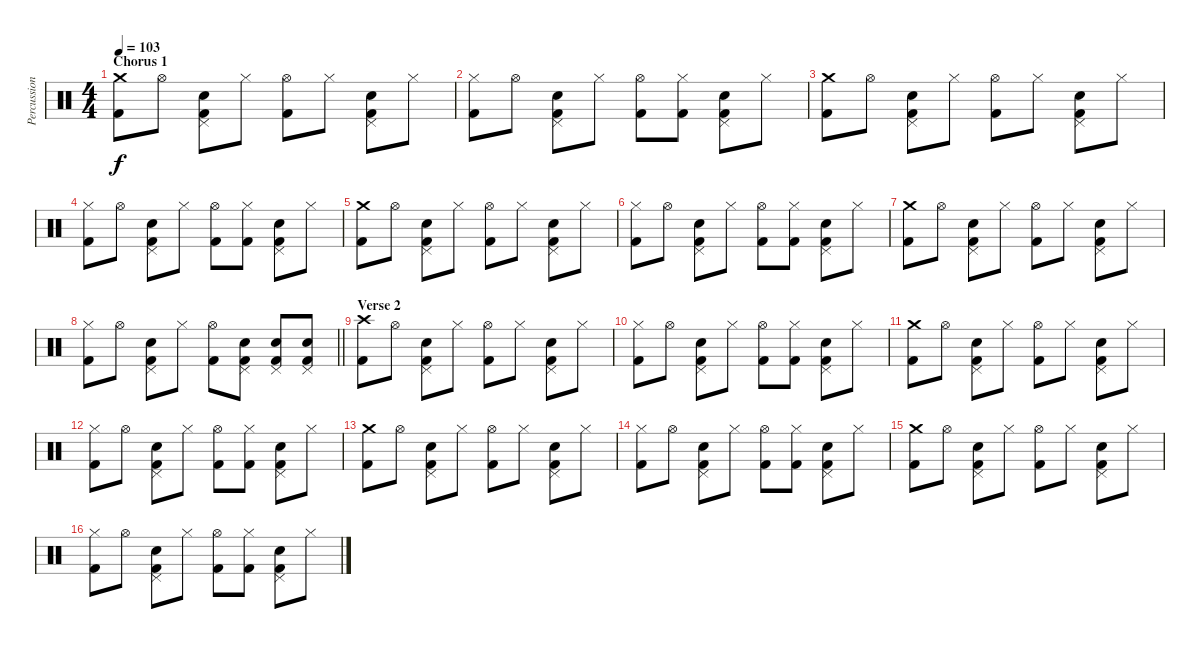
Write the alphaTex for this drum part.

\track ("Percussion: Denny Carmassi" "Percussion") {instrument percussion}
\staff {score}
\articulation defaults
\ts (4 4)
\section ("" "Chorus 1")
\tempo 103
\clef neutral
\ks c
("Crash medium (hit)" "Kick (hit) 2").8{dy f} "Hi-Hat (open)".8 ("Pedal Hi-Hat (hit)" "Snare (hit) 2" "Kick (hit) 2").8 "Hi-Hat (closed)".8 ("Hi-Hat (open)" "Kick (hit) 2").8 "Hi-Hat (closed)".8 ("Pedal Hi-Hat (hit)" "Snare (hit) 2" "Kick (hit) 2").8 "Hi-Hat (closed)".8 |
("Hi-Hat (closed)" "Kick (hit) 2").8 "Hi-Hat (open)".8 ("Pedal Hi-Hat (hit)" "Snare (hit) 2" "Kick (hit) 2").8 "Hi-Hat (closed)".8 ("Hi-Hat (open)" "Kick (hit) 2").8 ("Hi-Hat (closed)" "Kick (hit) 2").8 ("Pedal Hi-Hat (hit)" "Snare (hit) 2" "Kick (hit) 2").8 "Hi-Hat (closed)".8 |
("Crash medium (hit)" "Kick (hit) 2").8 "Hi-Hat (open)".8 ("Pedal Hi-Hat (hit)" "Snare (hit) 2" "Kick (hit) 2").8 "Hi-Hat (closed)".8 ("Hi-Hat (open)" "Kick (hit) 2").8 "Hi-Hat (closed)".8 ("Pedal Hi-Hat (hit)" "Snare (hit) 2" "Kick (hit) 2").8 "Hi-Hat (closed)".8 |
("Hi-Hat (closed)" "Kick (hit) 2").8 "Hi-Hat (open)".8 ("Pedal Hi-Hat (hit)" "Snare (hit) 2" "Kick (hit) 2").8 "Hi-Hat (closed)".8 ("Hi-Hat (open)" "Kick (hit) 2").8 ("Hi-Hat (closed)" "Kick (hit) 2").8 ("Pedal Hi-Hat (hit)" "Snare (hit) 2" "Kick (hit) 2").8 "Hi-Hat (closed)".8 |
("Crash medium (hit)" "Kick (hit) 2").8 "Hi-Hat (open)".8 ("Pedal Hi-Hat (hit)" "Snare (hit) 2" "Kick (hit) 2").8 "Hi-Hat (closed)".8 ("Hi-Hat (open)" "Kick (hit) 2").8 "Hi-Hat (closed)".8 ("Pedal Hi-Hat (hit)" "Snare (hit) 2" "Kick (hit) 2").8 "Hi-Hat (closed)".8 |
("Hi-Hat (closed)" "Kick (hit) 2").8 "Hi-Hat (open)".8 ("Pedal Hi-Hat (hit)" "Snare (hit) 2" "Kick (hit) 2").8 "Hi-Hat (closed)".8 ("Hi-Hat (open)" "Kick (hit) 2").8 ("Hi-Hat (closed)" "Kick (hit) 2").8 ("Pedal Hi-Hat (hit)" "Snare (hit) 2" "Kick (hit) 2").8 "Hi-Hat (closed)".8 |
("Crash medium (hit)" "Kick (hit) 2").8 "Hi-Hat (open)".8 ("Pedal Hi-Hat (hit)" "Snare (hit) 2" "Kick (hit) 2").8 "Hi-Hat (closed)".8 ("Hi-Hat (open)" "Kick (hit) 2").8 "Hi-Hat (closed)".8 ("Pedal Hi-Hat (hit)" "Snare (hit) 2" "Kick (hit) 2").8 "Hi-Hat (closed)".8 |
\barLineRight lightlight
("Hi-Hat (closed)" "Kick (hit) 2").8 "Hi-Hat (open)".8 ("Pedal Hi-Hat (hit)" "Snare (hit) 2" "Kick (hit) 2").8 "Hi-Hat (closed)".8 ("Hi-Hat (open)" "Kick (hit) 2").8 ("Pedal Hi-Hat (hit)" "Snare (hit) 2" "Kick (hit) 2").8 ("Pedal Hi-Hat (hit)" "Snare (hit) 2" "Kick (hit) 2").8 ("Pedal Hi-Hat (hit)" "Snare (hit) 2" "Kick (hit) 2").8 |
\section ("" "Verse 2")
("Crash high (hit)" "Kick (hit) 2").8 "Hi-Hat (open)".8 ("Pedal Hi-Hat (hit)" "Snare (hit) 2" "Kick (hit) 2").8 "Hi-Hat (closed)".8 ("Hi-Hat (open)" "Kick (hit) 2").8 "Hi-Hat (closed)".8 ("Pedal Hi-Hat (hit)" "Snare (hit) 2" "Kick (hit) 2").8 "Hi-Hat (closed)".8 |
("Hi-Hat (closed)" "Kick (hit) 2").8 "Hi-Hat (open)".8 ("Pedal Hi-Hat (hit)" "Snare (hit) 2" "Kick (hit) 2").8 "Hi-Hat (closed)".8 ("Hi-Hat (open)" "Kick (hit) 2").8 ("Hi-Hat (closed)" "Kick (hit) 2").8 ("Pedal Hi-Hat (hit)" "Snare (hit) 2" "Kick (hit) 2").8 "Hi-Hat (closed)".8 |
("Crash medium (hit)" "Kick (hit) 2").8 "Hi-Hat (open)".8 ("Pedal Hi-Hat (hit)" "Snare (hit) 2" "Kick (hit) 2").8 "Hi-Hat (closed)".8 ("Hi-Hat (open)" "Kick (hit) 2").8 "Hi-Hat (closed)".8 ("Pedal Hi-Hat (hit)" "Snare (hit) 2" "Kick (hit) 2").8 "Hi-Hat (closed)".8 |
("Hi-Hat (closed)" "Kick (hit) 2").8 "Hi-Hat (open)".8 ("Pedal Hi-Hat (hit)" "Snare (hit) 2" "Kick (hit) 2").8 "Hi-Hat (closed)".8 ("Hi-Hat (open)" "Kick (hit) 2").8 ("Hi-Hat (closed)" "Kick (hit) 2").8 ("Pedal Hi-Hat (hit)" "Snare (hit) 2" "Kick (hit) 2").8 "Hi-Hat (closed)".8 |
("Crash medium (hit)" "Kick (hit) 2").8 "Hi-Hat (open)".8 ("Pedal Hi-Hat (hit)" "Snare (hit) 2" "Kick (hit) 2").8 "Hi-Hat (closed)".8 ("Hi-Hat (open)" "Kick (hit) 2").8 "Hi-Hat (closed)".8 ("Pedal Hi-Hat (hit)" "Snare (hit) 2" "Kick (hit) 2").8 "Hi-Hat (closed)".8 |
("Hi-Hat (closed)" "Kick (hit) 2").8 "Hi-Hat (open)".8 ("Pedal Hi-Hat (hit)" "Snare (hit) 2" "Kick (hit) 2").8 "Hi-Hat (closed)".8 ("Hi-Hat (open)" "Kick (hit) 2").8 ("Hi-Hat (closed)" "Kick (hit) 2").8 ("Pedal Hi-Hat (hit)" "Snare (hit) 2" "Kick (hit) 2").8 "Hi-Hat (closed)".8 |
("Crash medium (hit)" "Kick (hit) 2").8 "Hi-Hat (open)".8 ("Pedal Hi-Hat (hit)" "Snare (hit) 2" "Kick (hit) 2").8 "Hi-Hat (closed)".8 ("Hi-Hat (open)" "Kick (hit) 2").8 "Hi-Hat (closed)".8 ("Pedal Hi-Hat (hit)" "Snare (hit) 2" "Kick (hit) 2").8 "Hi-Hat (closed)".8 |
("Hi-Hat (closed)" "Kick (hit) 2").8 "Hi-Hat (open)".8 ("Pedal Hi-Hat (hit)" "Snare (hit) 2" "Kick (hit) 2").8 "Hi-Hat (closed)".8 ("Hi-Hat (open)" "Kick (hit) 2").8 ("Hi-Hat (closed)" "Kick (hit) 2").8 ("Pedal Hi-Hat (hit)" "Snare (hit) 2" "Kick (hit) 2").8 "Hi-Hat (closed)".8
